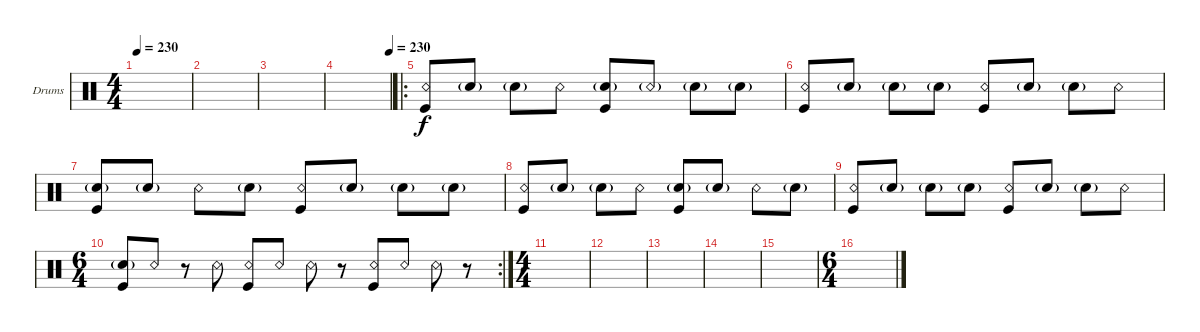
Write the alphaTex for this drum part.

\bracketExtendMode groupsimilarinstruments
\firstSystemTrackNameOrientation horizontal
\otherSystemsTrackNameOrientation horizontal
\track ("Drumkit" "Drums") {instrument percussion}
\staff {score}
\articulation defaults
\ts (4 4)
\tempo 230
\clef neutral
\ks c
|
|
|
\tempo (230 1)
|
\ro
("Snare (rim shot)" "Kick (hit)").8 "Snare (hit) 2"{g}.8 "Snare (hit) 2"{g}.8 "Snare (rim shot)".8 ("Snare (hit) 2"{g} "Kick (hit)").8 "Snare (rim shot)"{g}.8 "Snare (hit) 2"{g}.8 "Snare (hit) 2"{g}.8 |
("Kick (hit)" "Snare (rim shot)").8 "Snare (hit) 2"{g}.8 "Snare (hit) 2"{g}.8 "Snare (hit) 2"{g}.8 ("Snare (rim shot)" "Kick (hit)").8 "Snare (hit) 2"{g}.8 "Snare (hit) 2"{g}.8 "Snare (rim shot)".8 |
("Snare (hit) 2"{g} "Kick (hit)").8 "Snare (hit) 2"{g}.8 "Snare (rim shot)".8 "Snare (hit) 2"{g}.8 ("Snare (rim shot)" "Kick (hit)").8 "Snare (hit) 2"{g}.8 "Snare (hit) 2"{g}.8 "Snare (hit) 2"{g}.8 |
("Snare (rim shot)" "Kick (hit)").8 "Snare (hit) 2"{g}.8 "Snare (hit) 2"{g}.8 "Snare (rim shot)".8 ("Snare (hit) 2"{g} "Kick (hit)").8 "Snare (hit) 2"{g}.8 "Snare (rim shot)".8 "Snare (hit) 2"{g}.8 |
("Snare (rim shot)" "Kick (hit)").8 "Snare (hit) 2"{g}.8 "Snare (hit) 2"{g}.8 "Snare (hit) 2"{g}.8 ("Snare (rim shot)" "Kick (hit)").8 "Snare (hit) 2"{g}.8 "Snare (hit) 2"{g}.8 "Snare (rim shot)".8 |
\rc 2
\ts (6 4)
("Snare (hit) 2"{g} "Kick (hit)").8 "Snare (rim shot)".8 r.8 "Snare (rim shot)".8 ("Snare (rim shot)" "Kick (hit)").8 "Snare (rim shot)".8 "Snare (rim shot)".8 r.8 ("Snare (rim shot)" "Kick (hit)").8 "Snare (rim shot)".8 "Snare (rim shot)".8 r.8 |
\ts (4 4)
|
|
|
|
|
\ts (6 4)
